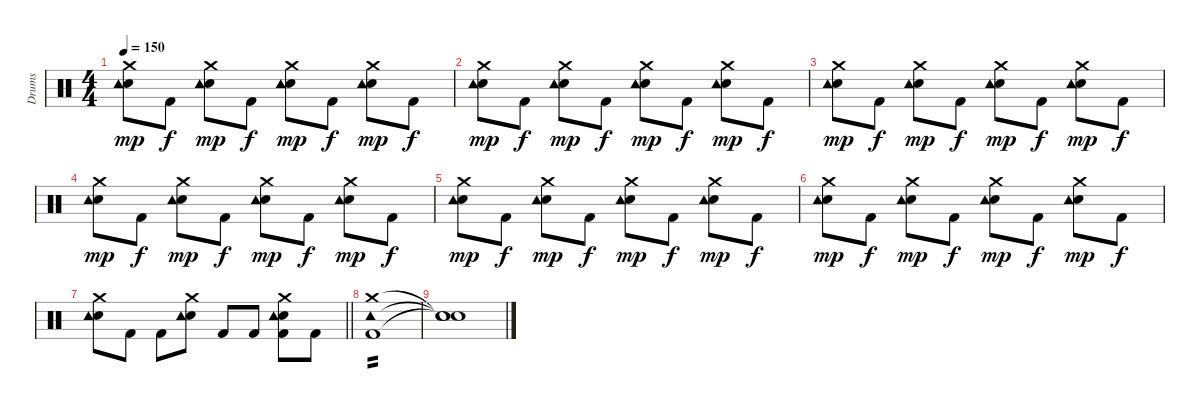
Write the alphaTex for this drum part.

\track ("Drums" "Drums") {instrument percussion}
\staff {score}
\articulation defaults
\ts (4 4)
\tempo 150
\clef neutral
\ks c
("Crash medium (hit)" "Snare (hit) 2" "Tambourine (hit)").8{dy mp} "Kick (hit) 2".8{dy f} ("Crash medium (hit)" "Snare (hit) 2" "Tambourine (hit)").8{dy mp} "Kick (hit) 2".8{dy f} ("Crash medium (hit)" "Snare (hit) 2" "Tambourine (hit)").8{dy mp} "Kick (hit) 2".8{dy f} ("Crash medium (hit)" "Snare (hit) 2" "Tambourine (hit)").8{dy mp} "Kick (hit) 2".8{dy f} |
("Crash medium (hit)" "Snare (hit) 2" "Tambourine (hit)").8{dy mp} "Kick (hit) 2".8{dy f} ("Crash medium (hit)" "Snare (hit) 2" "Tambourine (hit)").8{dy mp} "Kick (hit) 2".8{dy f} ("Crash medium (hit)" "Snare (hit) 2" "Tambourine (hit)").8{dy mp} "Kick (hit) 2".8{dy f} ("Crash medium (hit)" "Snare (hit) 2" "Tambourine (hit)").8{dy mp} "Kick (hit) 2".8{dy f} |
("Crash medium (hit)" "Snare (hit) 2" "Tambourine (hit)").8{dy mp} "Kick (hit) 2".8{dy f} ("Crash medium (hit)" "Snare (hit) 2" "Tambourine (hit)").8{dy mp} "Kick (hit) 2".8{dy f} ("Crash medium (hit)" "Snare (hit) 2" "Tambourine (hit)").8{dy mp} "Kick (hit) 2".8{dy f} ("Crash medium (hit)" "Snare (hit) 2" "Tambourine (hit)").8{dy mp} "Kick (hit) 2".8{dy f} |
("Crash medium (hit)" "Snare (hit) 2" "Tambourine (hit)").8{dy mp} "Kick (hit) 2".8{dy f} ("Crash medium (hit)" "Snare (hit) 2" "Tambourine (hit)").8{dy mp} "Kick (hit) 2".8{dy f} ("Crash medium (hit)" "Snare (hit) 2" "Tambourine (hit)").8{dy mp} "Kick (hit) 2".8{dy f} ("Crash medium (hit)" "Snare (hit) 2" "Tambourine (hit)").8{dy mp} "Kick (hit) 2".8{dy f} |
("Crash medium (hit)" "Snare (hit) 2" "Tambourine (hit)").8{dy mp} "Kick (hit) 2".8{dy f} ("Crash medium (hit)" "Snare (hit) 2" "Tambourine (hit)").8{dy mp} "Kick (hit) 2".8{dy f} ("Crash medium (hit)" "Snare (hit) 2" "Tambourine (hit)").8{dy mp} "Kick (hit) 2".8{dy f} ("Crash medium (hit)" "Snare (hit) 2" "Tambourine (hit)").8{dy mp} "Kick (hit) 2".8{dy f} |
("Crash medium (hit)" "Snare (hit) 2" "Tambourine (hit)").8{dy mp} "Kick (hit) 2".8{dy f} ("Crash medium (hit)" "Snare (hit) 2" "Tambourine (hit)").8{dy mp} "Kick (hit) 2".8{dy f} ("Crash medium (hit)" "Snare (hit) 2" "Tambourine (hit)").8{dy mp} "Kick (hit) 2".8{dy f} ("Crash medium (hit)" "Snare (hit) 2" "Tambourine (hit)").8{dy mp} "Kick (hit) 2".8{dy f} |
\barLineRight lightlight
("Crash medium (hit)" "Snare (hit) 2" "Tambourine (hit)").8 "Kick (hit) 2".8 "Kick (hit) 2".8 ("Crash medium (hit)" "Snare (hit) 2" "Tambourine (hit)").8 "Kick (hit) 2".8 "Kick (hit) 2".8 ("Crash medium (hit)" "Snare (hit) 2" "Tambourine (hit)" "Kick (hit) 2").8 "Kick (hit) 2".8 |
("Crash medium (hit)" "Kick (hit) 2" "Tambourine (hit)").1{tp 2 volume 0} |
("Snare (hit)"{t} "Snare (hit)"{t} "Snare (hit)"{t}).1
